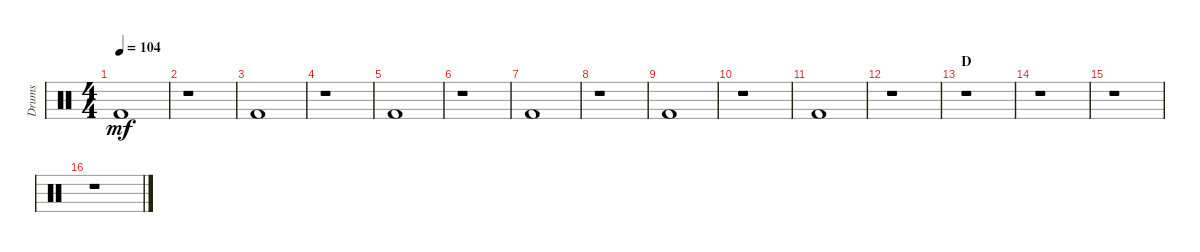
\track ("Drums" "Drums") {instrument percussion}
\staff {score}
\articulation defaults
\ts (4 4)
\tempo 104
\clef neutral
\ks c "Kick (hit) 2".1{dy mf}
|
r.1 |
"Kick (hit) 2".1 |
r.1 |
"Kick (hit) 2".1 |
r.1 |
"Kick (hit) 2".1 |
r.1 |
"Kick (hit) 2".1 |
r.1 |
"Kick (hit) 2".1 |
r.1 |
\section ("" "D")
r.1 |
r.1 |
r.1 |
r.1
